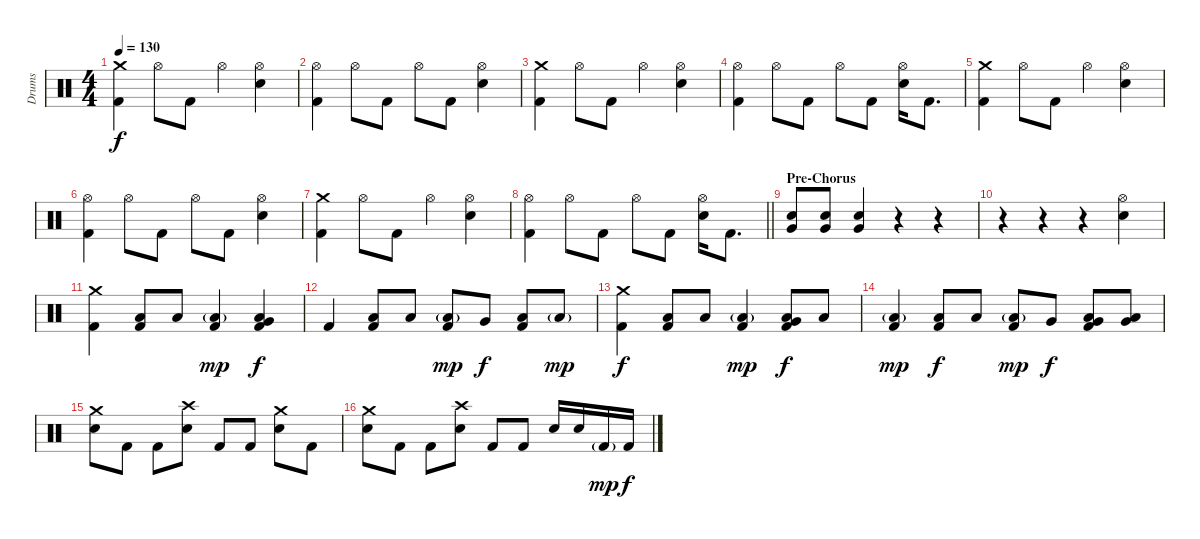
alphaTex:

\track ("Drums" "Drums") {instrument percussion}
\staff {score}
\articulation defaults
\ts (4 4)
\tempo 130
\clef neutral
\ks c
("Crash medium (hit)" "Kick (hit) 2").4{dy f} "Hi-Hat (open)".8 "Kick (hit) 2".8 "Hi-Hat (open)".4 ("Hi-Hat (open)" "Electric Snare (hit)").4 |
("Hi-Hat (open)" "Kick (hit) 2").4 "Hi-Hat (open)".8 "Kick (hit) 2".8 "Hi-Hat (open)".8 "Kick (hit) 2".8 ("Hi-Hat (open)" "Electric Snare (hit)").4 |
("Crash medium (hit)" "Kick (hit) 2").4 "Hi-Hat (open)".8 "Kick (hit) 2".8 "Hi-Hat (open)".4 ("Hi-Hat (open)" "Electric Snare (hit)").4 |
("Hi-Hat (open)" "Kick (hit) 2").4 "Hi-Hat (open)".8 "Kick (hit) 2".8 "Hi-Hat (open)".8 "Kick (hit) 2".8 ("Hi-Hat (open)" "Electric Snare (hit)").16 "Kick (hit) 2".8{d} |
("Crash medium (hit)" "Kick (hit) 2").4 "Hi-Hat (open)".8 "Kick (hit) 2".8 "Hi-Hat (open)".4 ("Hi-Hat (open)" "Electric Snare (hit)").4 |
("Hi-Hat (open)" "Kick (hit) 2").4 "Hi-Hat (open)".8 "Kick (hit) 2".8 "Hi-Hat (open)".8 "Kick (hit) 2".8 ("Hi-Hat (open)" "Electric Snare (hit)").4 |
("Crash medium (hit)" "Kick (hit) 2").4 "Hi-Hat (open)".8 "Kick (hit) 2".8 "Hi-Hat (open)".4 ("Hi-Hat (open)" "Electric Snare (hit)").4 |
\barLineRight lightlight
("Hi-Hat (open)" "Kick (hit) 2").4 "Hi-Hat (open)".8 "Kick (hit) 2".8 "Hi-Hat (open)".8 "Kick (hit) 2".8 ("Hi-Hat (open)" "Electric Snare (hit)").16 "Kick (hit) 2".8{d} |
\section ("" "Pre-Chorus")
("Very Low Tom (hit)" "Electric Snare (hit)").8 ("Very Low Tom (hit)" "Electric Snare (hit)").8 ("Very Low Tom (hit)" "Electric Snare (hit)").4 r.4 r.4 |
r.4 r.4 r.4 ("Hi-Hat (open)" "Electric Snare (hit)").4 |
("Crash medium (hit)" "Kick (hit) 2").4 ("Low Floor Tom (hit)" "Kick (hit) 2").8 "Low Tom (hit)".8 ("Low Floor Tom (hit)"{g} "Kick (hit) 2").4{dy mp} ("Very Low Tom (hit)" "Low Floor Tom (hit)" "Kick (hit) 2").4{dy f} |
"Kick (hit) 2".4 ("Low Floor Tom (hit)" "Kick (hit) 2").8 "Low Tom (hit)".8 ("Low Floor Tom (hit)"{g} "Kick (hit) 2").8{dy mp} "Very Low Tom (hit)".8{dy f} ("Low Floor Tom (hit)" "Kick (hit) 2").8 "Low Floor Tom (hit)"{g}.8{dy mp} |
("Crash medium (hit)" "Kick (hit) 2").4{dy f} ("Low Floor Tom (hit)" "Kick (hit) 2").8 "Low Tom (hit)".8 ("Low Floor Tom (hit)"{g} "Kick (hit) 2").4{dy mp} ("Very Low Tom (hit)" "Low Floor Tom (hit)" "Kick (hit) 2").8{dy f} "Low Floor Tom (hit)".8 |
("Low Floor Tom (hit)"{g} "Kick (hit) 2").4{dy mp} ("Low Floor Tom (hit)" "Kick (hit) 2").8{dy f} "Low Tom (hit)".8 ("Low Floor Tom (hit)"{g} "Kick (hit) 2").8{dy mp} "Very Low Tom (hit)".8{dy f} ("Very Low Tom (hit)" "Low Floor Tom (hit)" "Kick (hit) 2").8 ("Very Low Tom (hit)" "Low Floor Tom (hit)").8 |
("Crash medium (hit)" "Electric Snare (hit)").8 "Kick (hit) 2".8 "Kick (hit) 2".8 ("Crash high (hit)" "Electric Snare (hit)").8 "Kick (hit) 2".8 "Kick (hit) 2".8 ("Crash medium (hit)" "Electric Snare (hit)").8 "Kick (hit) 2".8 |
("Crash medium (hit)" "Electric Snare (hit)").8 "Kick (hit) 2".8 "Kick (hit) 2".8 ("Crash high (hit)" "Electric Snare (hit)").8 "Kick (hit) 2".8 "Kick (hit) 2".8 "Electric Snare (hit)".16 "Electric Snare (hit)".16 "Kick (hit) 2"{g}.16{dy mp} "Kick (hit) 2".16{dy f}
